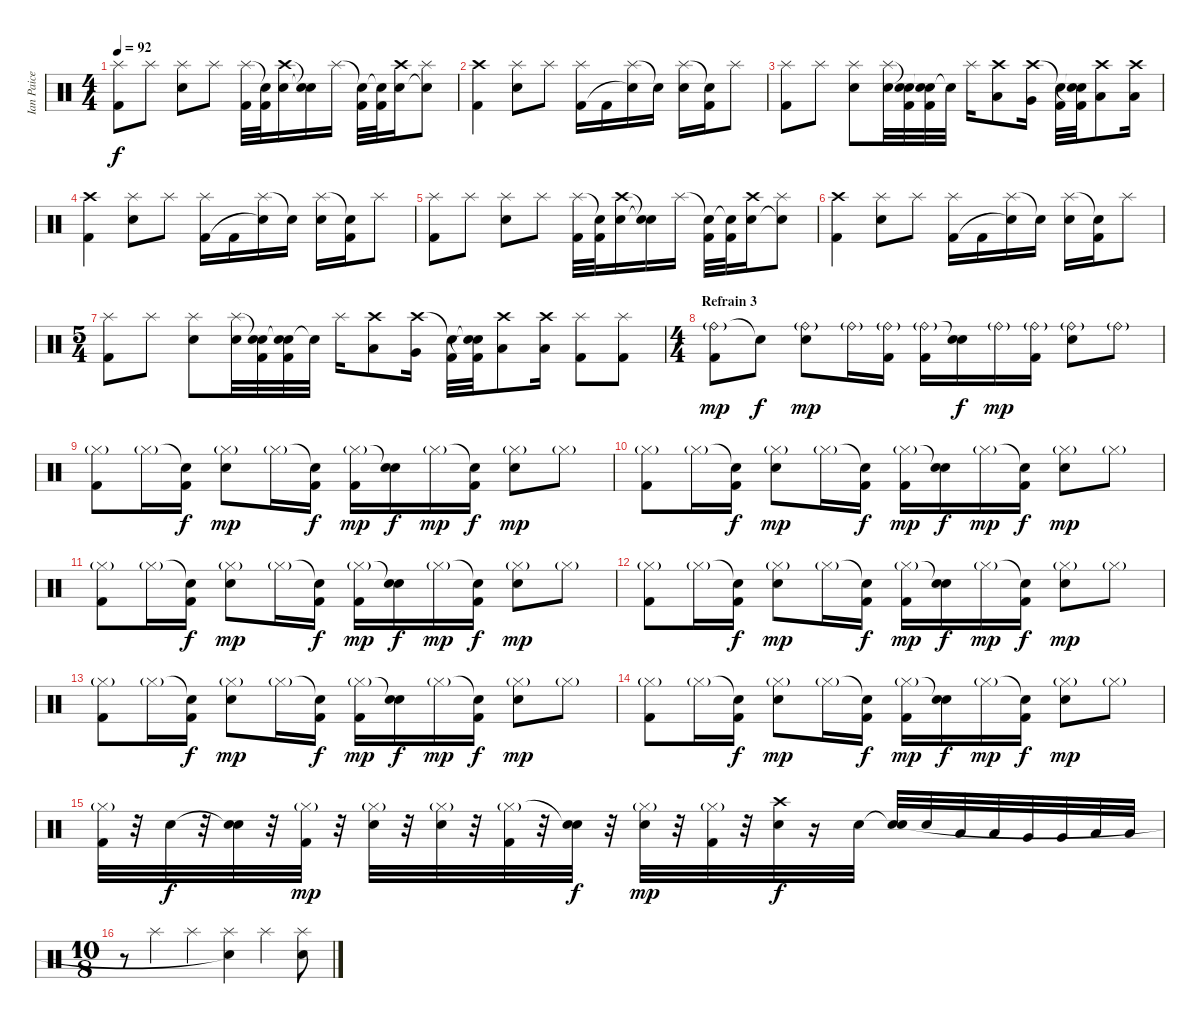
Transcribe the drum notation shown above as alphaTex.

\track ("Ian Paice" "Ian Paice") {instrument percussion}
\staff {score}
\articulation defaults
\ts (4 4)
\tempo 92
\clef neutral
\ks c
("Splash (hit)" "Kick (hit) 2").8{dy f} "Splash (hit)".8 ("Splash (hit)" "Snare (hit) 2").8 "Splash (hit)".8 ("Splash (hit)" "Kick (hit) 2").32 ("Snare (hit)"{t} "Kick (hit) 2").32 ("Crash high (hit)" "Snare (hit) 2").16 ("Snare (hit)"{t} "Snare (hit)"{t}).16 "Splash (hit)".16 ("Snare (hit)"{t} "Kick (hit) 2").32 ("Snare (hit)"{t} "Kick (hit) 2").32 ("Crash high (hit)" "Snare (hit) 2").16 ("Splash (hit)" "Snare (hit)"{t}).8 |
("Crash high (hit)" "Kick (hit) 2").4 ("Splash (hit)" "Snare (hit) 2").8 "Splash (hit)".8 ("Splash (hit)" "Kick (hit) 2").16 "Kick (hit) 2".16 ("Splash (hit)" "Snare (hit)"{t}).16 "Snare (hit)"{t}.16 ("Splash (hit)" "Snare (hit) 2").16 ("Snare (hit)"{t} "Kick (hit) 2").16 "Splash (hit)".8 |
("Splash (hit)" "Kick (hit) 2").8 "Splash (hit)".8 ("Splash (hit)" "Snare (hit) 2").8 ("Splash (hit)" "Snare (hit) 2").32 ("Snare (hit)"{t} "Snare (hit) 2" "Kick (hit) 2").32 ("Snare (hit)"{t} "Snare (hit) 2" "Kick (hit) 2").32 "Snare (hit)"{t}.32 "Splash (hit)".16 ("Crash high (hit)" "Low Floor Tom (hit)").8 ("Crash high (hit)" "Very Low Tom (hit)").16 ("Snare (hit)"{t} "Kick (hit) 2").32 ("Snare (hit)"{t} "Snare (hit)"{t} "Kick (hit) 2").32 ("Crash high (hit)" "Low Tom (hit)").8 ("Crash high (hit)" "Low Tom (hit)").16 |
("Crash high (hit)" "Kick (hit) 2").4 ("Splash (hit)" "Snare (hit) 2").8 "Splash (hit)".8 ("Splash (hit)" "Kick (hit) 2").16 "Kick (hit) 2".16 ("Splash (hit)" "Snare (hit)"{t}).16 "Snare (hit)"{t}.16 ("Splash (hit)" "Snare (hit) 2").16 ("Snare (hit)"{t} "Kick (hit) 2").16 "Splash (hit)".8 |
("Splash (hit)" "Kick (hit) 2").8 "Splash (hit)".8 ("Splash (hit)" "Snare (hit) 2").8 "Splash (hit)".8 ("Splash (hit)" "Kick (hit) 2").32 ("Snare (hit)"{t} "Kick (hit) 2").32 ("Crash high (hit)" "Snare (hit) 2").16 ("Snare (hit)"{t} "Snare (hit)"{t}).16 "Splash (hit)".16 ("Snare (hit)"{t} "Kick (hit) 2").32 ("Snare (hit)"{t} "Kick (hit) 2").32 ("Crash high (hit)" "Snare (hit) 2").16 ("Splash (hit)" "Snare (hit)"{t}).8 |
("Crash high (hit)" "Kick (hit) 2").4 ("Splash (hit)" "Snare (hit) 2").8 "Splash (hit)".8 ("Splash (hit)" "Kick (hit) 2").16 "Kick (hit) 2".16 ("Splash (hit)" "Snare (hit)"{t}).16 "Snare (hit)"{t}.16 ("Splash (hit)" "Snare (hit) 2").16 ("Snare (hit)"{t} "Kick (hit) 2").16 "Splash (hit)".8 |
\ts (5 4)
("Splash (hit)" "Kick (hit) 2").8 "Splash (hit)".8 ("Splash (hit)" "Snare (hit) 2").8 ("Splash (hit)" "Snare (hit) 2").32 ("Snare (hit)"{t} "Snare (hit) 2" "Kick (hit) 2").32 ("Snare (hit)"{t} "Snare (hit) 2" "Kick (hit) 2").32 "Snare (hit)"{t}.32 "Splash (hit)".16 ("Crash high (hit)" "Low Floor Tom (hit)").8 ("Crash high (hit)" "Very Low Tom (hit)").16 ("Snare (hit)"{t} "Kick (hit) 2").32 ("Snare (hit)"{t} "Snare (hit)"{t} "Kick (hit) 2").32 ("Crash high (hit)" "Low Tom (hit)").8 ("Crash high (hit)" "Low Tom (hit)").16 ("Splash (hit)" "Kick (hit) 2").8 ("Splash (hit)" "Kick (hit) 2").8 |
\ts (4 4)
\section ("" "Refrain 3")
("Ride (bell)"{g} "Kick (hit) 2").8{dy mp} "Snare (hit)"{t}.8{dy f} ("Ride (bell)"{g} "Snare (hit) 2").8{dy mp} "Ride (bell)"{g}.16 ("Ride (bell)"{g} "Kick (hit) 2").16 ("Ride (bell)"{g} "Kick (hit) 2").16 ("Snare (hit)"{t} "Snare (hit) 2").16{dy f} "Ride (bell)"{g}.16{dy mp} ("Ride (bell)"{g} "Kick (hit) 2").16 ("Ride (bell)"{g} "Snare (hit) 2").8 "Ride (bell)"{g}.8 |
("Hi-Hat (closed)"{g} "Kick (hit) 2").8 "Hi-Hat (closed)"{g}.16 ("Snare (hit)"{t} "Kick (hit) 2").16{dy f} ("Hi-Hat (closed)"{g} "Snare (hit) 2").8{dy mp} "Hi-Hat (closed)"{g}.16 ("Snare (hit)"{t} "Kick (hit) 2").16{dy f} ("Hi-Hat (closed)"{g} "Kick (hit) 2").16{dy mp} ("Snare (hit)"{t} "Snare (hit) 2").16{dy f} "Hi-Hat (closed)"{g}.16{dy mp} ("Snare (hit)"{t} "Kick (hit) 2").16{dy f} ("Hi-Hat (closed)"{g} "Snare (hit) 2").8{dy mp} "Hi-Hat (closed)"{g}.8 |
("Hi-Hat (closed)"{g} "Kick (hit) 2").8 "Hi-Hat (closed)"{g}.16 ("Snare (hit)"{t} "Kick (hit) 2").16{dy f} ("Hi-Hat (closed)"{g} "Snare (hit) 2").8{dy mp} "Hi-Hat (closed)"{g}.16 ("Snare (hit)"{t} "Kick (hit) 2").16{dy f} ("Hi-Hat (closed)"{g} "Kick (hit) 2").16{dy mp} ("Snare (hit)"{t} "Snare (hit) 2").16{dy f} "Hi-Hat (closed)"{g}.16{dy mp} ("Snare (hit)"{t} "Kick (hit) 2").16{dy f} ("Hi-Hat (closed)"{g} "Snare (hit) 2").8{dy mp} "Hi-Hat (closed)"{g}.8 |
("Hi-Hat (closed)"{g} "Kick (hit) 2").8 "Hi-Hat (closed)"{g}.16 ("Snare (hit)"{t} "Kick (hit) 2").16{dy f} ("Hi-Hat (closed)"{g} "Snare (hit) 2").8{dy mp} "Hi-Hat (closed)"{g}.16 ("Snare (hit)"{t} "Kick (hit) 2").16{dy f} ("Hi-Hat (closed)"{g} "Kick (hit) 2").16{dy mp} ("Snare (hit)"{t} "Snare (hit) 2").16{dy f} "Hi-Hat (closed)"{g}.16{dy mp} ("Snare (hit)"{t} "Kick (hit) 2").16{dy f} ("Hi-Hat (closed)"{g} "Snare (hit) 2").8{dy mp} "Hi-Hat (closed)"{g}.8 |
("Hi-Hat (closed)"{g} "Kick (hit) 2").8 "Hi-Hat (closed)"{g}.16 ("Snare (hit)"{t} "Kick (hit) 2").16{dy f} ("Hi-Hat (closed)"{g} "Snare (hit) 2").8{dy mp} "Hi-Hat (closed)"{g}.16 ("Snare (hit)"{t} "Kick (hit) 2").16{dy f} ("Hi-Hat (closed)"{g} "Kick (hit) 2").16{dy mp} ("Snare (hit)"{t} "Snare (hit) 2").16{dy f} "Hi-Hat (closed)"{g}.16{dy mp} ("Snare (hit)"{t} "Kick (hit) 2").16{dy f} ("Hi-Hat (closed)"{g} "Snare (hit) 2").8{dy mp} "Hi-Hat (closed)"{g}.8 |
("Hi-Hat (closed)"{g} "Kick (hit) 2").8 "Hi-Hat (closed)"{g}.16 ("Snare (hit)"{t} "Kick (hit) 2").16{dy f} ("Hi-Hat (closed)"{g} "Snare (hit) 2").8{dy mp} "Hi-Hat (closed)"{g}.16 ("Snare (hit)"{t} "Kick (hit) 2").16{dy f} ("Hi-Hat (closed)"{g} "Kick (hit) 2").16{dy mp} ("Snare (hit)"{t} "Snare (hit) 2").16{dy f} "Hi-Hat (closed)"{g}.16{dy mp} ("Snare (hit)"{t} "Kick (hit) 2").16{dy f} ("Hi-Hat (closed)"{g} "Snare (hit) 2").8{dy mp} "Hi-Hat (closed)"{g}.8 |
("Hi-Hat (closed)"{g} "Kick (hit) 2").8 "Hi-Hat (closed)"{g}.16 ("Snare (hit)"{t} "Kick (hit) 2").16{dy f} ("Hi-Hat (closed)"{g} "Snare (hit) 2").8{dy mp} "Hi-Hat (closed)"{g}.16 ("Snare (hit)"{t} "Kick (hit) 2").16{dy f} ("Hi-Hat (closed)"{g} "Kick (hit) 2").16{dy mp} ("Snare (hit)"{t} "Snare (hit) 2").16{dy f} "Hi-Hat (closed)"{g}.16{dy mp} ("Snare (hit)"{t} "Kick (hit) 2").16{dy f} ("Hi-Hat (closed)"{g} "Snare (hit) 2").8{dy mp} "Hi-Hat (closed)"{g}.8 |
("Hi-Hat (closed)"{g} "Kick (hit) 2").32 r.32 "Snare (hit) 2".32{dy f} r.32 ("Snare (hit)"{t} "Snare (hit) 2").32 r.32 ("Hi-Hat (closed)"{g} "Kick (hit) 2").32{dy mp} r.32 ("Hi-Hat (closed)"{g} "Snare (hit) 2").32 r.32 ("Hi-Hat (closed)"{g} "Snare (hit) 2").32 r.32 ("Hi-Hat (closed)"{g} "Kick (hit) 2").32 r.32 ("Snare (hit)"{t} "Snare (hit) 2").32{dy f} r.32 ("Hi-Hat (closed)"{g} "Snare (hit) 2").32{dy mp} r.32 ("Hi-Hat (closed)"{g} "Kick (hit) 2").32 r.32 ("Crash high (hit)" "Snare (hit) 2").32{dy f} r.16 "Snare (hit) 2".32 ("Snare (hit)"{t} "Snare (hit) 2").32 "Snare (hit) 2".32 "Low Tom (hit)".32 "Low Tom (hit)".32 "Very Low Tom (hit)".32 "Very Low Tom (hit)".32 "Low Floor Tom (hit)".32 "Low Floor Tom (hit)".32 |
\ts (10 8)
r.8 "Splash (hit)".4 "Splash (hit)".4 ("Splash (hit)" "Snare (hit)"{t}).4 "Splash (hit)".4 ("Splash (hit)" "Snare (hit) 2").8
